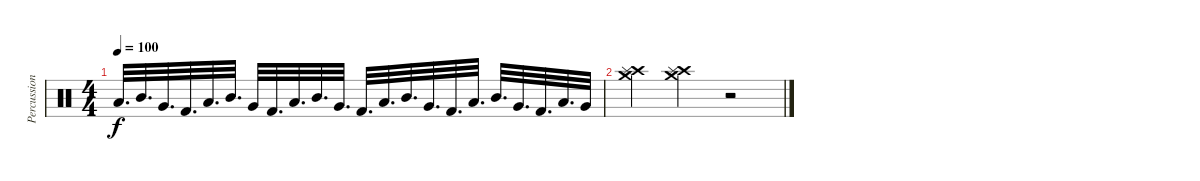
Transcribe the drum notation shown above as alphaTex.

\track ("Percussion" "Percussion") {instrument percussion}
\staff {score}
\articulation defaults
\ts (4 4)
\tempo 100
\clef neutral
\ks c "Low Tom (hit)".32{d dy f} "Mid Tom (hit)".32{d} "Very Low Tom (hit)".32{d} "Kick (hit) 2".32{d} "Low Tom (hit)".32{d} "Mid Tom (hit)".32{d} "Very Low Tom (hit)".32 "Kick (hit) 2".32{d} "Low Tom (hit)".32{d} "Mid Tom (hit)".32{d} "Very Low Tom (hit)".32{d} "Kick (hit) 2".32{d} "Low Tom (hit)".32{d} "Mid Tom (hit)".32{d} "Very Low Tom (hit)".32{d} "Kick (hit) 2".32{d} "Low Tom (hit)".32{d} "Mid Tom (hit)".32{d} "Very Low Tom (hit)".32{d} "Kick (hit) 2".32{d} "Low Tom (hit)".32{d} "Very Low Tom (hit)".32
|
("Crash high (hit)" "Crash medium (hit)" "Splash (hit)").4 ("Crash high (hit)" "Crash medium (hit)" "Splash (hit)").4 r.2
